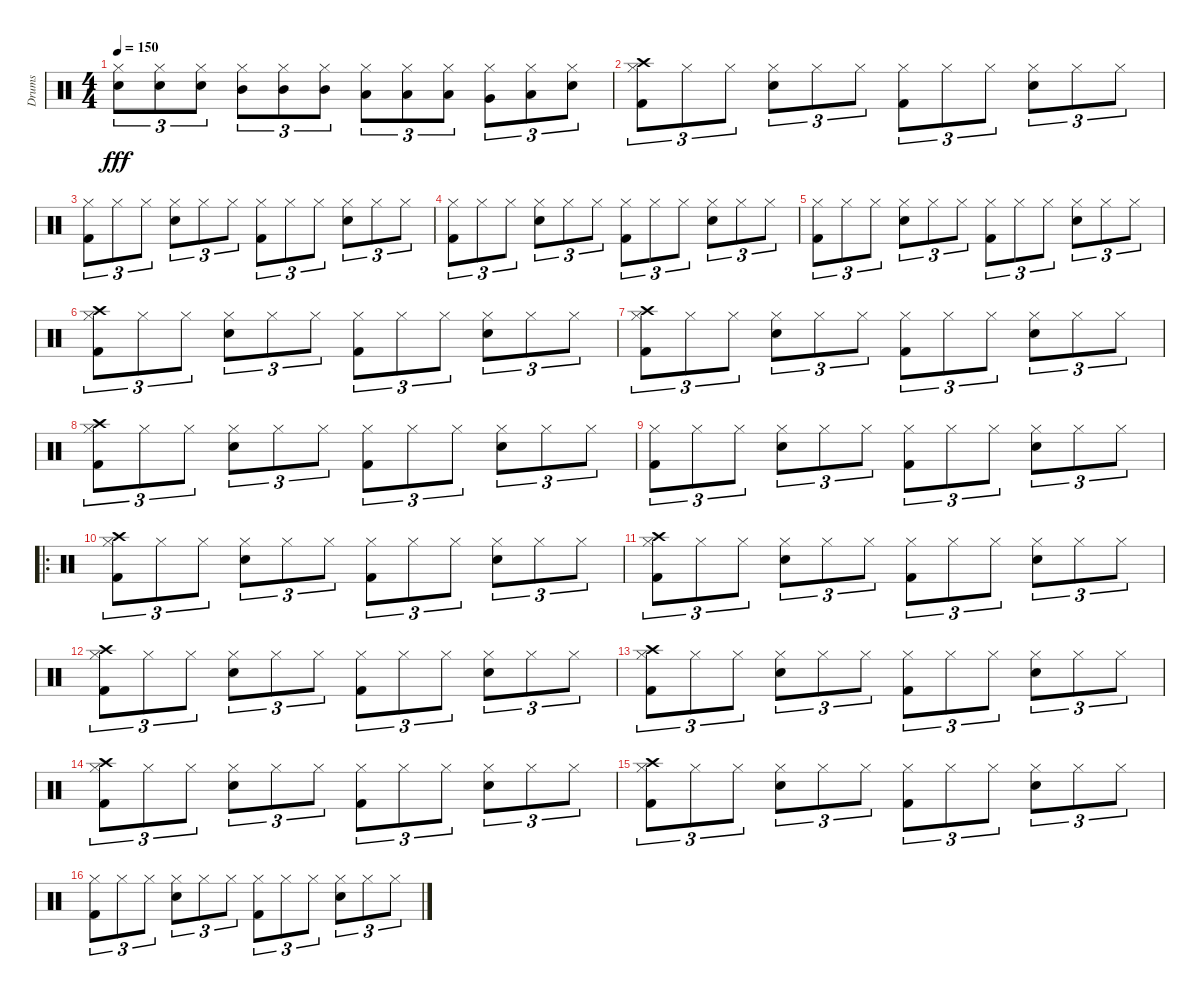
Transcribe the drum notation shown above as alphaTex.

\track ("Drums" "Drums") {instrument percussion}
\staff {score}
\articulation defaults
\ts (4 4)
\tempo 150
\clef neutral
\ks c
("Snare (hit) 2" "Hi-Hat (closed)").8{tu (3 2) dy fff} ("Snare (hit) 2" "Hi-Hat (closed)").8{tu (3 2)} ("Snare (hit) 2" "Hi-Hat (closed)").8{tu (3 2)} ("Mid Tom (hit)" "Hi-Hat (closed)").8{tu (3 2)} ("Mid Tom (hit)" "Hi-Hat (closed)").8{tu (3 2)} ("Mid Tom (hit)" "Hi-Hat (closed)").8{tu (3 2)} ("Low Tom (hit)" "Hi-Hat (closed)").8{tu (3 2)} ("Low Tom (hit)" "Hi-Hat (closed)").8{tu (3 2)} ("Low Tom (hit)" "Hi-Hat (closed)").8{tu (3 2)} ("Very Low Tom (hit)" "Hi-Hat (closed)").8{tu (3 2)} ("Low Floor Tom (hit)" "Hi-Hat (closed)").8{tu (3 2)} ("Electric Snare (hit)" "Hi-Hat (closed)").8{tu (3 2)} |
("Hi-Hat (closed)" "Kick (hit) 2" "Crash high (hit)").8{tu (3 2)} "Hi-Hat (closed)".8{tu (3 2)} "Hi-Hat (closed)".8{tu (3 2)} ("Hi-Hat (closed)" "Snare (hit) 2").8{tu (3 2)} "Hi-Hat (closed)".8{tu (3 2)} "Hi-Hat (closed)".8{tu (3 2)} ("Hi-Hat (closed)" "Kick (hit) 2").8{tu (3 2)} "Hi-Hat (closed)".8{tu (3 2)} "Hi-Hat (closed)".8{tu (3 2)} ("Hi-Hat (closed)" "Snare (hit) 2").8{tu (3 2)} "Hi-Hat (closed)".8{tu (3 2)} "Hi-Hat (closed)".8{tu (3 2)} |
("Hi-Hat (closed)" "Kick (hit) 2").8{tu (3 2)} "Hi-Hat (closed)".8{tu (3 2)} "Hi-Hat (closed)".8{tu (3 2)} ("Hi-Hat (closed)" "Snare (hit) 2").8{tu (3 2)} "Hi-Hat (closed)".8{tu (3 2)} "Hi-Hat (closed)".8{tu (3 2)} ("Hi-Hat (closed)" "Kick (hit) 2").8{tu (3 2)} "Hi-Hat (closed)".8{tu (3 2)} "Hi-Hat (closed)".8{tu (3 2)} ("Hi-Hat (closed)" "Snare (hit) 2").8{tu (3 2)} "Hi-Hat (closed)".8{tu (3 2)} "Hi-Hat (closed)".8{tu (3 2)} |
("Hi-Hat (closed)" "Kick (hit) 2").8{tu (3 2)} "Hi-Hat (closed)".8{tu (3 2)} "Hi-Hat (closed)".8{tu (3 2)} ("Hi-Hat (closed)" "Snare (hit) 2").8{tu (3 2)} "Hi-Hat (closed)".8{tu (3 2)} "Hi-Hat (closed)".8{tu (3 2)} ("Hi-Hat (closed)" "Kick (hit) 2").8{tu (3 2)} "Hi-Hat (closed)".8{tu (3 2)} "Hi-Hat (closed)".8{tu (3 2)} ("Hi-Hat (closed)" "Snare (hit) 2").8{tu (3 2)} "Hi-Hat (closed)".8{tu (3 2)} "Hi-Hat (closed)".8{tu (3 2)} |
("Hi-Hat (closed)" "Kick (hit) 2").8{tu (3 2)} "Hi-Hat (closed)".8{tu (3 2)} "Hi-Hat (closed)".8{tu (3 2)} ("Hi-Hat (closed)" "Snare (hit) 2").8{tu (3 2)} "Hi-Hat (closed)".8{tu (3 2)} "Hi-Hat (closed)".8{tu (3 2)} ("Hi-Hat (closed)" "Kick (hit) 2").8{tu (3 2)} "Hi-Hat (closed)".8{tu (3 2)} "Hi-Hat (closed)".8{tu (3 2)} ("Hi-Hat (closed)" "Snare (hit) 2").8{tu (3 2)} "Hi-Hat (closed)".8{tu (3 2)} "Hi-Hat (closed)".8{tu (3 2)} |
("Hi-Hat (closed)" "Kick (hit) 2" "Crash high (hit)").8{tu (3 2)} "Hi-Hat (closed)".8{tu (3 2)} "Hi-Hat (closed)".8{tu (3 2)} ("Hi-Hat (closed)" "Snare (hit) 2").8{tu (3 2)} "Hi-Hat (closed)".8{tu (3 2)} "Hi-Hat (closed)".8{tu (3 2)} ("Hi-Hat (closed)" "Kick (hit) 2").8{tu (3 2)} "Hi-Hat (closed)".8{tu (3 2)} "Hi-Hat (closed)".8{tu (3 2)} ("Hi-Hat (closed)" "Snare (hit) 2").8{tu (3 2)} "Hi-Hat (closed)".8{tu (3 2)} "Hi-Hat (closed)".8{tu (3 2)} |
("Hi-Hat (closed)" "Kick (hit) 2" "Crash high (hit)").8{tu (3 2)} "Hi-Hat (closed)".8{tu (3 2)} "Hi-Hat (closed)".8{tu (3 2)} ("Hi-Hat (closed)" "Snare (hit) 2").8{tu (3 2)} "Hi-Hat (closed)".8{tu (3 2)} "Hi-Hat (closed)".8{tu (3 2)} ("Hi-Hat (closed)" "Kick (hit) 2").8{tu (3 2)} "Hi-Hat (closed)".8{tu (3 2)} "Hi-Hat (closed)".8{tu (3 2)} ("Hi-Hat (closed)" "Snare (hit) 2").8{tu (3 2)} "Hi-Hat (closed)".8{tu (3 2)} "Hi-Hat (closed)".8{tu (3 2)} |
("Hi-Hat (closed)" "Kick (hit) 2" "Crash high (hit)").8{tu (3 2)} "Hi-Hat (closed)".8{tu (3 2)} "Hi-Hat (closed)".8{tu (3 2)} ("Hi-Hat (closed)" "Snare (hit) 2").8{tu (3 2)} "Hi-Hat (closed)".8{tu (3 2)} "Hi-Hat (closed)".8{tu (3 2)} ("Hi-Hat (closed)" "Kick (hit) 2").8{tu (3 2)} "Hi-Hat (closed)".8{tu (3 2)} "Hi-Hat (closed)".8{tu (3 2)} ("Hi-Hat (closed)" "Snare (hit) 2").8{tu (3 2)} "Hi-Hat (closed)".8{tu (3 2)} "Hi-Hat (closed)".8{tu (3 2)} |
("Hi-Hat (closed)" "Kick (hit) 2").8{tu (3 2)} "Hi-Hat (closed)".8{tu (3 2)} "Hi-Hat (closed)".8{tu (3 2)} ("Hi-Hat (closed)" "Snare (hit) 2").8{tu (3 2)} "Hi-Hat (closed)".8{tu (3 2)} "Hi-Hat (closed)".8{tu (3 2)} ("Hi-Hat (closed)" "Kick (hit) 2").8{tu (3 2)} "Hi-Hat (closed)".8{tu (3 2)} "Hi-Hat (closed)".8{tu (3 2)} ("Hi-Hat (closed)" "Snare (hit) 2").8{tu (3 2)} "Hi-Hat (closed)".8{tu (3 2)} "Hi-Hat (closed)".8{tu (3 2)} |
\ro
("Hi-Hat (closed)" "Kick (hit) 2" "Crash high (hit)").8{tu (3 2)} "Hi-Hat (closed)".8{tu (3 2)} "Hi-Hat (closed)".8{tu (3 2)} ("Hi-Hat (closed)" "Snare (hit) 2").8{tu (3 2)} "Hi-Hat (closed)".8{tu (3 2)} "Hi-Hat (closed)".8{tu (3 2)} ("Hi-Hat (closed)" "Kick (hit) 2").8{tu (3 2)} "Hi-Hat (closed)".8{tu (3 2)} "Hi-Hat (closed)".8{tu (3 2)} ("Hi-Hat (closed)" "Snare (hit) 2").8{tu (3 2)} "Hi-Hat (closed)".8{tu (3 2)} "Hi-Hat (closed)".8{tu (3 2)} |
("Hi-Hat (closed)" "Kick (hit) 2" "Crash high (hit)").8{tu (3 2)} "Hi-Hat (closed)".8{tu (3 2)} "Hi-Hat (closed)".8{tu (3 2)} ("Hi-Hat (closed)" "Snare (hit) 2").8{tu (3 2)} "Hi-Hat (closed)".8{tu (3 2)} "Hi-Hat (closed)".8{tu (3 2)} ("Hi-Hat (closed)" "Kick (hit) 2").8{tu (3 2)} "Hi-Hat (closed)".8{tu (3 2)} "Hi-Hat (closed)".8{tu (3 2)} ("Hi-Hat (closed)" "Snare (hit) 2").8{tu (3 2)} "Hi-Hat (closed)".8{tu (3 2)} "Hi-Hat (closed)".8{tu (3 2)} |
("Hi-Hat (closed)" "Kick (hit) 2" "Crash high (hit)").8{tu (3 2)} "Hi-Hat (closed)".8{tu (3 2)} "Hi-Hat (closed)".8{tu (3 2)} ("Hi-Hat (closed)" "Snare (hit) 2").8{tu (3 2)} "Hi-Hat (closed)".8{tu (3 2)} "Hi-Hat (closed)".8{tu (3 2)} ("Hi-Hat (closed)" "Kick (hit) 2").8{tu (3 2)} "Hi-Hat (closed)".8{tu (3 2)} "Hi-Hat (closed)".8{tu (3 2)} ("Hi-Hat (closed)" "Snare (hit) 2").8{tu (3 2)} "Hi-Hat (closed)".8{tu (3 2)} "Hi-Hat (closed)".8{tu (3 2)} |
("Hi-Hat (closed)" "Kick (hit) 2" "Crash high (hit)").8{tu (3 2)} "Hi-Hat (closed)".8{tu (3 2)} "Hi-Hat (closed)".8{tu (3 2)} ("Hi-Hat (closed)" "Snare (hit) 2").8{tu (3 2)} "Hi-Hat (closed)".8{tu (3 2)} "Hi-Hat (closed)".8{tu (3 2)} ("Hi-Hat (closed)" "Kick (hit) 2").8{tu (3 2)} "Hi-Hat (closed)".8{tu (3 2)} "Hi-Hat (closed)".8{tu (3 2)} ("Hi-Hat (closed)" "Snare (hit) 2").8{tu (3 2)} "Hi-Hat (closed)".8{tu (3 2)} "Hi-Hat (closed)".8{tu (3 2)} |
("Hi-Hat (closed)" "Kick (hit) 2" "Crash high (hit)").8{tu (3 2)} "Hi-Hat (closed)".8{tu (3 2)} "Hi-Hat (closed)".8{tu (3 2)} ("Hi-Hat (closed)" "Snare (hit) 2").8{tu (3 2)} "Hi-Hat (closed)".8{tu (3 2)} "Hi-Hat (closed)".8{tu (3 2)} ("Hi-Hat (closed)" "Kick (hit) 2").8{tu (3 2)} "Hi-Hat (closed)".8{tu (3 2)} "Hi-Hat (closed)".8{tu (3 2)} ("Hi-Hat (closed)" "Snare (hit) 2").8{tu (3 2)} "Hi-Hat (closed)".8{tu (3 2)} "Hi-Hat (closed)".8{tu (3 2)} |
("Hi-Hat (closed)" "Kick (hit) 2" "Crash high (hit)").8{tu (3 2)} "Hi-Hat (closed)".8{tu (3 2)} "Hi-Hat (closed)".8{tu (3 2)} ("Hi-Hat (closed)" "Snare (hit) 2").8{tu (3 2)} "Hi-Hat (closed)".8{tu (3 2)} "Hi-Hat (closed)".8{tu (3 2)} ("Hi-Hat (closed)" "Kick (hit) 2").8{tu (3 2)} "Hi-Hat (closed)".8{tu (3 2)} "Hi-Hat (closed)".8{tu (3 2)} ("Hi-Hat (closed)" "Snare (hit) 2").8{tu (3 2)} "Hi-Hat (closed)".8{tu (3 2)} "Hi-Hat (closed)".8{tu (3 2)} |
("Hi-Hat (closed)" "Kick (hit) 2").8{tu (3 2)} "Hi-Hat (closed)".8{tu (3 2)} "Hi-Hat (closed)".8{tu (3 2)} ("Hi-Hat (closed)" "Snare (hit) 2").8{tu (3 2)} "Hi-Hat (closed)".8{tu (3 2)} "Hi-Hat (closed)".8{tu (3 2)} ("Hi-Hat (closed)" "Kick (hit) 2").8{tu (3 2)} "Hi-Hat (closed)".8{tu (3 2)} "Hi-Hat (closed)".8{tu (3 2)} ("Hi-Hat (closed)" "Snare (hit) 2").8{tu (3 2)} "Hi-Hat (closed)".8{tu (3 2)} "Hi-Hat (closed)".8{tu (3 2)}
